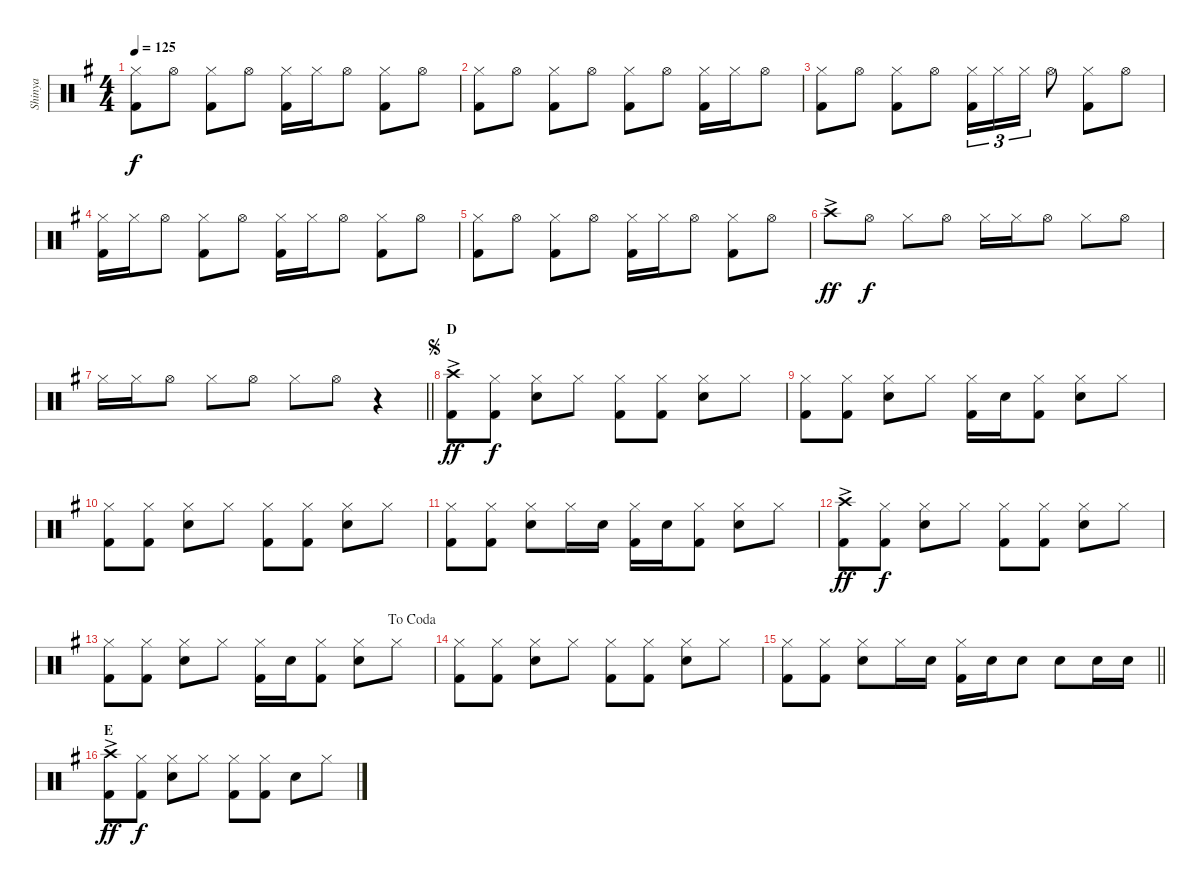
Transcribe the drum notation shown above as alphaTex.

\track ("Shinya" "Shinya") {instrument percussion}
\staff {score}
\articulation defaults
\ts (4 4)
\tempo 125
\clef neutral
\ks g
("Hi-Hat (closed)" "Kick (hit) 2").8{dy f} "Hi-Hat (open)".8 ("Hi-Hat (closed)" "Kick (hit) 2").8 "Hi-Hat (open)".8 ("Hi-Hat (closed)" "Kick (hit) 2").16 "Hi-Hat (closed)".16 "Hi-Hat (open)".8 ("Hi-Hat (closed)" "Kick (hit) 2").8 "Hi-Hat (open)".8 |
("Hi-Hat (closed)" "Kick (hit) 2").8 "Hi-Hat (open)".8 ("Hi-Hat (closed)" "Kick (hit) 2").8 "Hi-Hat (open)".8 ("Hi-Hat (closed)" "Kick (hit) 2").8 "Hi-Hat (open)".8 ("Hi-Hat (closed)" "Kick (hit) 2").16 "Hi-Hat (closed)".16 "Hi-Hat (open)".8 |
("Hi-Hat (closed)" "Kick (hit) 2").8 "Hi-Hat (open)".8 ("Hi-Hat (closed)" "Kick (hit) 2").8 "Hi-Hat (open)".8 ("Hi-Hat (closed)" "Kick (hit) 2").16{tu (3 2)} "Hi-Hat (closed)".16{tu (3 2)} "Hi-Hat (closed)".16{tu (3 2)} "Hi-Hat (open)".8 ("Hi-Hat (closed)" "Kick (hit) 2").8 "Hi-Hat (open)".8 |
("Hi-Hat (closed)" "Kick (hit) 2").16 "Hi-Hat (closed)".16 "Hi-Hat (open)".8 ("Hi-Hat (closed)" "Kick (hit) 2").8 "Hi-Hat (open)".8 ("Hi-Hat (closed)" "Kick (hit) 2").16 "Hi-Hat (closed)".16 "Hi-Hat (open)".8 ("Hi-Hat (closed)" "Kick (hit) 2").8 "Hi-Hat (open)".8 |
("Hi-Hat (closed)" "Kick (hit) 2").8 "Hi-Hat (open)".8 ("Hi-Hat (closed)" "Kick (hit) 2").8 "Hi-Hat (open)".8 ("Hi-Hat (closed)" "Kick (hit) 2").16 "Hi-Hat (closed)".16 "Hi-Hat (open)".8 ("Hi-Hat (closed)" "Kick (hit) 2").8 "Hi-Hat (open)".8 |
"Crash high (hit)"{ac}.8{dy ff} "Hi-Hat (open)".8{dy f} "Hi-Hat (closed)".8 "Hi-Hat (open)".8 "Hi-Hat (closed)".16 "Hi-Hat (closed)".16 "Hi-Hat (open)".8 "Hi-Hat (closed)".8 "Hi-Hat (open)".8 |
\barLineRight lightlight "Hi-Hat (closed)".16 "Hi-Hat (closed)".16 "Hi-Hat (open)".8 "Hi-Hat (closed)".8 "Hi-Hat (open)".8 "Hi-Hat (closed)".8 "Hi-Hat (open)".8
r.4 |
\section ("" "D")
\jump segno
("Crash high (hit)"{ac} "Kick (hit) 2").8{dy ff} ("Hi-Hat (closed)" "Kick (hit) 2").8{dy f} ("Hi-Hat (closed)" "Snare (hit) 2").8 "Hi-Hat (closed)".8 ("Hi-Hat (closed)" "Kick (hit) 2").8 ("Hi-Hat (closed)" "Kick (hit) 2").8 ("Hi-Hat (closed)" "Snare (hit) 2").8 "Hi-Hat (closed)".8 |
("Hi-Hat (closed)" "Kick (hit) 2").8 ("Hi-Hat (closed)" "Kick (hit) 2").8 ("Hi-Hat (closed)" "Snare (hit) 2").8 "Hi-Hat (closed)".8 ("Hi-Hat (closed)" "Kick (hit) 2").16 "Snare (hit) 2".16 ("Hi-Hat (closed)" "Kick (hit) 2").8 ("Hi-Hat (closed)" "Snare (hit) 2").8 "Hi-Hat (closed)".8 |
("Hi-Hat (closed)" "Kick (hit) 2").8 ("Hi-Hat (closed)" "Kick (hit) 2").8 ("Hi-Hat (closed)" "Snare (hit) 2").8 "Hi-Hat (closed)".8 ("Hi-Hat (closed)" "Kick (hit) 2").8 ("Hi-Hat (closed)" "Kick (hit) 2").8 ("Hi-Hat (closed)" "Snare (hit) 2").8 "Hi-Hat (closed)".8 |
("Hi-Hat (closed)" "Kick (hit) 2").8 ("Hi-Hat (closed)" "Kick (hit) 2").8 ("Hi-Hat (closed)" "Snare (hit) 2").8 "Hi-Hat (closed)".16 "Snare (hit) 2".16 ("Hi-Hat (closed)" "Kick (hit) 2").16 "Snare (hit) 2".16 ("Hi-Hat (closed)" "Kick (hit) 2").8 ("Hi-Hat (closed)" "Snare (hit) 2").8 "Hi-Hat (closed)".8 |
("Crash high (hit)"{ac} "Kick (hit) 2").8{dy ff} ("Hi-Hat (closed)" "Kick (hit) 2").8{dy f} ("Hi-Hat (closed)" "Snare (hit) 2").8 "Hi-Hat (closed)".8 ("Hi-Hat (closed)" "Kick (hit) 2").8 ("Hi-Hat (closed)" "Kick (hit) 2").8 ("Hi-Hat (closed)" "Snare (hit) 2").8 "Hi-Hat (closed)".8 |
\jump dacoda
("Hi-Hat (closed)" "Kick (hit) 2").8 ("Hi-Hat (closed)" "Kick (hit) 2").8 ("Hi-Hat (closed)" "Snare (hit) 2").8 "Hi-Hat (closed)".8 ("Hi-Hat (closed)" "Kick (hit) 2").16 "Snare (hit) 2".16 ("Hi-Hat (closed)" "Kick (hit) 2").8 ("Hi-Hat (closed)" "Snare (hit) 2").8 "Hi-Hat (closed)".8 |
("Hi-Hat (closed)" "Kick (hit) 2").8 ("Hi-Hat (closed)" "Kick (hit) 2").8 ("Hi-Hat (closed)" "Snare (hit) 2").8 "Hi-Hat (closed)".8 ("Hi-Hat (closed)" "Kick (hit) 2").8 ("Hi-Hat (closed)" "Kick (hit) 2").8 ("Hi-Hat (closed)" "Snare (hit) 2").8 "Hi-Hat (closed)".8 |
\barLineRight lightlight
("Hi-Hat (closed)" "Kick (hit) 2").8 ("Hi-Hat (closed)" "Kick (hit) 2").8 ("Hi-Hat (closed)" "Snare (hit) 2").8 "Hi-Hat (closed)".16 "Snare (hit) 2".16 ("Hi-Hat (closed)" "Kick (hit) 2").16 "Snare (hit) 2".16 "Snare (hit) 2".8 "Snare (hit) 2".8 "Snare (hit) 2".16 "Snare (hit) 2".16 |
\section ("" "E")
("Crash high (hit)"{ac} "Kick (hit) 2").8{dy ff} ("Hi-Hat (closed)" "Kick (hit) 2").8{dy f} ("Hi-Hat (closed)" "Snare (hit) 2").8 "Hi-Hat (closed)".8 ("Hi-Hat (closed)" "Kick (hit) 2").8 ("Hi-Hat (closed)" "Kick (hit) 2").8 "Snare (hit) 2".8 "Hi-Hat (closed)".8
